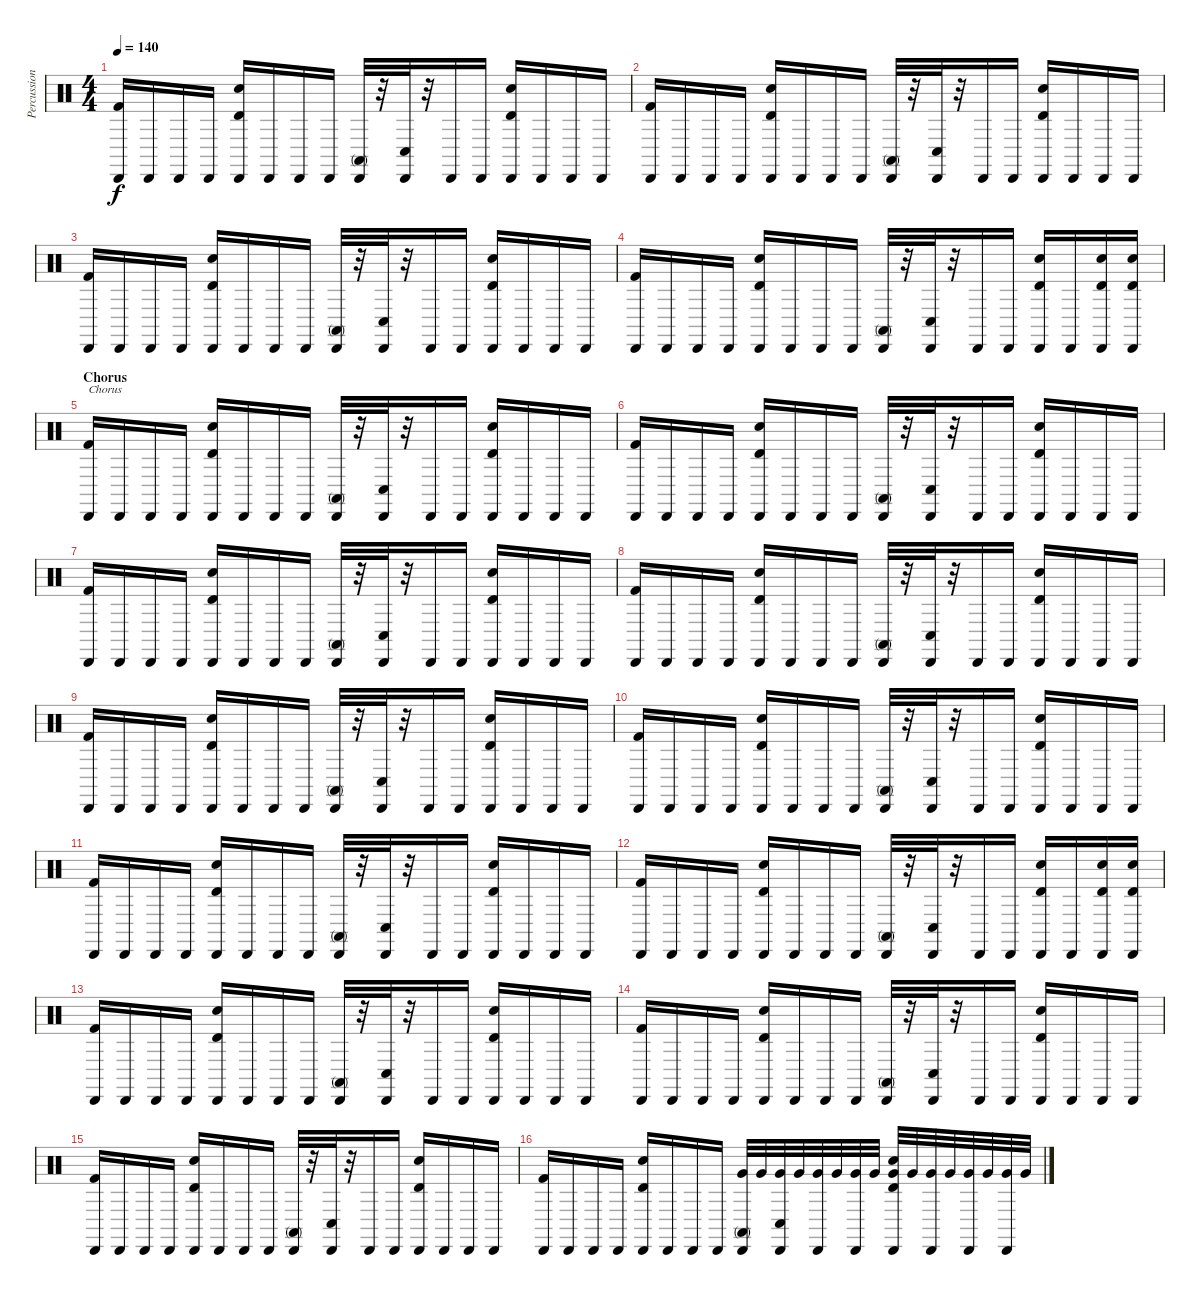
\track ("Percussions" "Percussion") {instrument percussion}
\staff {score}
\articulation defaults
\ts (4 4)
\tempo 140
\clef neutral
\ks c
("Kick (hit) 2" "Cabasa (hit)").16{dy f} "Cabasa (hit)".16 "Cabasa (hit)".16 "Cabasa (hit)".16 ("Timbale high (hit)" "Electric Snare (hit)" "Cabasa (hit)").16 "Cabasa (hit)".16 "Cabasa (hit)".16 "Cabasa (hit)".16 ("Conga high (mute)" "Cabasa (hit)").32 r.32 ("Conga low (hit)" "Cabasa (hit)").32 r.32 "Cabasa (hit)".16 "Cabasa (hit)".16 ("Electric Snare (hit)" "Timbale high (hit)" "Cabasa (hit)").16 "Cabasa (hit)".16 "Cabasa (hit)".16 "Cabasa (hit)".16 |
("Kick (hit) 2" "Cabasa (hit)").16 "Cabasa (hit)".16 "Cabasa (hit)".16 "Cabasa (hit)".16 ("Timbale high (hit)" "Electric Snare (hit)" "Cabasa (hit)").16 "Cabasa (hit)".16 "Cabasa (hit)".16 "Cabasa (hit)".16 ("Conga high (mute)" "Cabasa (hit)").32 r.32 ("Conga low (hit)" "Cabasa (hit)").32 r.32 "Cabasa (hit)".16 "Cabasa (hit)".16 ("Electric Snare (hit)" "Timbale high (hit)" "Cabasa (hit)").16 "Cabasa (hit)".16 "Cabasa (hit)".16 "Cabasa (hit)".16 |
("Kick (hit) 2" "Cabasa (hit)").16 "Cabasa (hit)".16 "Cabasa (hit)".16 "Cabasa (hit)".16 ("Timbale high (hit)" "Electric Snare (hit)" "Cabasa (hit)").16 "Cabasa (hit)".16 "Cabasa (hit)".16 "Cabasa (hit)".16 ("Conga high (mute)" "Cabasa (hit)").32 r.32 ("Conga low (hit)" "Cabasa (hit)").32 r.32 "Cabasa (hit)".16 "Cabasa (hit)".16 ("Electric Snare (hit)" "Timbale high (hit)" "Cabasa (hit)").16 "Cabasa (hit)".16 "Cabasa (hit)".16 "Cabasa (hit)".16 |
("Kick (hit) 2" "Cabasa (hit)").16 "Cabasa (hit)".16 "Cabasa (hit)".16 "Cabasa (hit)".16 ("Timbale high (hit)" "Electric Snare (hit)" "Cabasa (hit)").16 "Cabasa (hit)".16 "Cabasa (hit)".16 "Cabasa (hit)".16 ("Conga high (mute)" "Cabasa (hit)").32 r.32 ("Conga low (hit)" "Cabasa (hit)").32 r.32 "Cabasa (hit)".16 "Cabasa (hit)".16 ("Electric Snare (hit)" "Timbale high (hit)" "Cabasa (hit)").16 "Cabasa (hit)".16 ("Electric Snare (hit)" "Timbale high (hit)" "Cabasa (hit)").16 ("Electric Snare (hit)" "Timbale high (hit)" "Cabasa (hit)").16 |
\section ("" "Chorus")
("Kick (hit) 2" "Cabasa (hit)").16{txt "Chorus"} "Cabasa (hit)".16 "Cabasa (hit)".16 "Cabasa (hit)".16 ("Timbale high (hit)" "Electric Snare (hit)" "Cabasa (hit)").16 "Cabasa (hit)".16 "Cabasa (hit)".16 "Cabasa (hit)".16 ("Conga high (mute)" "Cabasa (hit)").32 r.32 ("Conga low (hit)" "Cabasa (hit)").32 r.32 "Cabasa (hit)".16 "Cabasa (hit)".16 ("Electric Snare (hit)" "Timbale high (hit)" "Cabasa (hit)").16 "Cabasa (hit)".16 "Cabasa (hit)".16 "Cabasa (hit)".16 |
("Kick (hit) 2" "Cabasa (hit)").16 "Cabasa (hit)".16 "Cabasa (hit)".16 "Cabasa (hit)".16 ("Timbale high (hit)" "Electric Snare (hit)" "Cabasa (hit)").16 "Cabasa (hit)".16 "Cabasa (hit)".16 "Cabasa (hit)".16 ("Conga high (mute)" "Cabasa (hit)").32 r.32 ("Conga low (hit)" "Cabasa (hit)").32 r.32 "Cabasa (hit)".16 "Cabasa (hit)".16 ("Electric Snare (hit)" "Timbale high (hit)" "Cabasa (hit)").16 "Cabasa (hit)".16 "Cabasa (hit)".16 "Cabasa (hit)".16 |
("Kick (hit) 2" "Cabasa (hit)").16 "Cabasa (hit)".16 "Cabasa (hit)".16 "Cabasa (hit)".16 ("Timbale high (hit)" "Electric Snare (hit)" "Cabasa (hit)").16 "Cabasa (hit)".16 "Cabasa (hit)".16 "Cabasa (hit)".16 ("Conga high (mute)" "Cabasa (hit)").32 r.32 ("Conga low (hit)" "Cabasa (hit)").32 r.32 "Cabasa (hit)".16 "Cabasa (hit)".16 ("Electric Snare (hit)" "Timbale high (hit)" "Cabasa (hit)").16 "Cabasa (hit)".16 "Cabasa (hit)".16 "Cabasa (hit)".16 |
("Kick (hit) 2" "Cabasa (hit)").16 "Cabasa (hit)".16 "Cabasa (hit)".16 "Cabasa (hit)".16 ("Timbale high (hit)" "Electric Snare (hit)" "Cabasa (hit)").16 "Cabasa (hit)".16 "Cabasa (hit)".16 "Cabasa (hit)".16 ("Conga high (mute)" "Cabasa (hit)").32 r.32 ("Conga low (hit)" "Cabasa (hit)").32 r.32 "Cabasa (hit)".16 "Cabasa (hit)".16 ("Electric Snare (hit)" "Timbale high (hit)" "Cabasa (hit)").16 "Cabasa (hit)".16 "Cabasa (hit)".16 "Cabasa (hit)".16 |
("Kick (hit) 2" "Cabasa (hit)").16 "Cabasa (hit)".16 "Cabasa (hit)".16 "Cabasa (hit)".16 ("Timbale high (hit)" "Electric Snare (hit)" "Cabasa (hit)").16 "Cabasa (hit)".16 "Cabasa (hit)".16 "Cabasa (hit)".16 ("Conga high (mute)" "Cabasa (hit)").32 r.32 ("Conga low (hit)" "Cabasa (hit)").32 r.32 "Cabasa (hit)".16 "Cabasa (hit)".16 ("Electric Snare (hit)" "Timbale high (hit)" "Cabasa (hit)").16 "Cabasa (hit)".16 "Cabasa (hit)".16 "Cabasa (hit)".16 |
("Kick (hit) 2" "Cabasa (hit)").16 "Cabasa (hit)".16 "Cabasa (hit)".16 "Cabasa (hit)".16 ("Timbale high (hit)" "Electric Snare (hit)" "Cabasa (hit)").16 "Cabasa (hit)".16 "Cabasa (hit)".16 "Cabasa (hit)".16 ("Conga high (mute)" "Cabasa (hit)").32 r.32 ("Conga low (hit)" "Cabasa (hit)").32 r.32 "Cabasa (hit)".16 "Cabasa (hit)".16 ("Electric Snare (hit)" "Timbale high (hit)" "Cabasa (hit)").16 "Cabasa (hit)".16 "Cabasa (hit)".16 "Cabasa (hit)".16 |
("Kick (hit) 2" "Cabasa (hit)").16 "Cabasa (hit)".16 "Cabasa (hit)".16 "Cabasa (hit)".16 ("Timbale high (hit)" "Electric Snare (hit)" "Cabasa (hit)").16 "Cabasa (hit)".16 "Cabasa (hit)".16 "Cabasa (hit)".16 ("Conga high (mute)" "Cabasa (hit)").32 r.32 ("Conga low (hit)" "Cabasa (hit)").32 r.32 "Cabasa (hit)".16 "Cabasa (hit)".16 ("Electric Snare (hit)" "Timbale high (hit)" "Cabasa (hit)").16 "Cabasa (hit)".16 "Cabasa (hit)".16 "Cabasa (hit)".16 |
("Kick (hit) 2" "Cabasa (hit)").16 "Cabasa (hit)".16 "Cabasa (hit)".16 "Cabasa (hit)".16 ("Timbale high (hit)" "Electric Snare (hit)" "Cabasa (hit)").16 "Cabasa (hit)".16 "Cabasa (hit)".16 "Cabasa (hit)".16 ("Conga high (mute)" "Cabasa (hit)").32 r.32 ("Conga low (hit)" "Cabasa (hit)").32 r.32 "Cabasa (hit)".16 "Cabasa (hit)".16 ("Electric Snare (hit)" "Timbale high (hit)" "Cabasa (hit)").16 "Cabasa (hit)".16 ("Timbale high (hit)" "Electric Snare (hit)" "Cabasa (hit)").16 ("Timbale high (hit)" "Electric Snare (hit)" "Cabasa (hit)").16 |
("Kick (hit) 2" "Cabasa (hit)").16 "Cabasa (hit)".16 "Cabasa (hit)".16 "Cabasa (hit)".16 ("Timbale high (hit)" "Electric Snare (hit)" "Cabasa (hit)").16 "Cabasa (hit)".16 "Cabasa (hit)".16 "Cabasa (hit)".16 ("Conga high (mute)" "Cabasa (hit)").32 r.32 ("Conga low (hit)" "Cabasa (hit)").32 r.32 "Cabasa (hit)".16 "Cabasa (hit)".16 ("Electric Snare (hit)" "Timbale high (hit)" "Cabasa (hit)").16 "Cabasa (hit)".16 "Cabasa (hit)".16 "Cabasa (hit)".16 |
("Kick (hit) 2" "Cabasa (hit)").16 "Cabasa (hit)".16 "Cabasa (hit)".16 "Cabasa (hit)".16 ("Timbale high (hit)" "Electric Snare (hit)" "Cabasa (hit)").16 "Cabasa (hit)".16 "Cabasa (hit)".16 "Cabasa (hit)".16 ("Conga high (mute)" "Cabasa (hit)").32 r.32 ("Conga low (hit)" "Cabasa (hit)").32 r.32 "Cabasa (hit)".16 "Cabasa (hit)".16 ("Electric Snare (hit)" "Timbale high (hit)" "Cabasa (hit)").16 "Cabasa (hit)".16 "Cabasa (hit)".16 "Cabasa (hit)".16 |
("Kick (hit) 2" "Cabasa (hit)").16 "Cabasa (hit)".16 "Cabasa (hit)".16 "Cabasa (hit)".16 ("Timbale high (hit)" "Electric Snare (hit)" "Cabasa (hit)").16 "Cabasa (hit)".16 "Cabasa (hit)".16 "Cabasa (hit)".16 ("Conga high (mute)" "Cabasa (hit)").32 r.32 ("Conga low (hit)" "Cabasa (hit)").32 r.32 "Cabasa (hit)".16 "Cabasa (hit)".16 ("Electric Snare (hit)" "Timbale high (hit)" "Cabasa (hit)").16 "Cabasa (hit)".16 "Cabasa (hit)".16 "Cabasa (hit)".16 |
("Kick (hit) 2" "Cabasa (hit)").16 "Cabasa (hit)".16 "Cabasa (hit)".16 "Cabasa (hit)".16 ("Timbale high (hit)" "Electric Snare (hit)" "Cabasa (hit)").16 "Cabasa (hit)".16 "Cabasa (hit)".16 "Cabasa (hit)".16 ("Very Low Tom (hit)" "Conga high (mute)" "Cabasa (hit)").32 "Very Low Tom (hit)".32 ("Very Low Tom (hit)" "Conga low (hit)" "Cabasa (hit)").32 "Very Low Tom (hit)".32 ("Very Low Tom (hit)" "Cabasa (hit)").32 "Very Low Tom (hit)".32 ("Very Low Tom (hit)" "Cabasa (hit)").32 "Very Low Tom (hit)".32 ("Very Low Tom (hit)" "Electric Snare (hit)" "Timbale high (hit)" "Cabasa (hit)").32 "Very Low Tom (hit)".32 ("Very Low Tom (hit)" "Cabasa (hit)").32 "Very Low Tom (hit)".32 ("Very Low Tom (hit)" "Cabasa (hit)").32 "Very Low Tom (hit)".32 ("Very Low Tom (hit)" "Cabasa (hit)").32 "Very Low Tom (hit)".32
